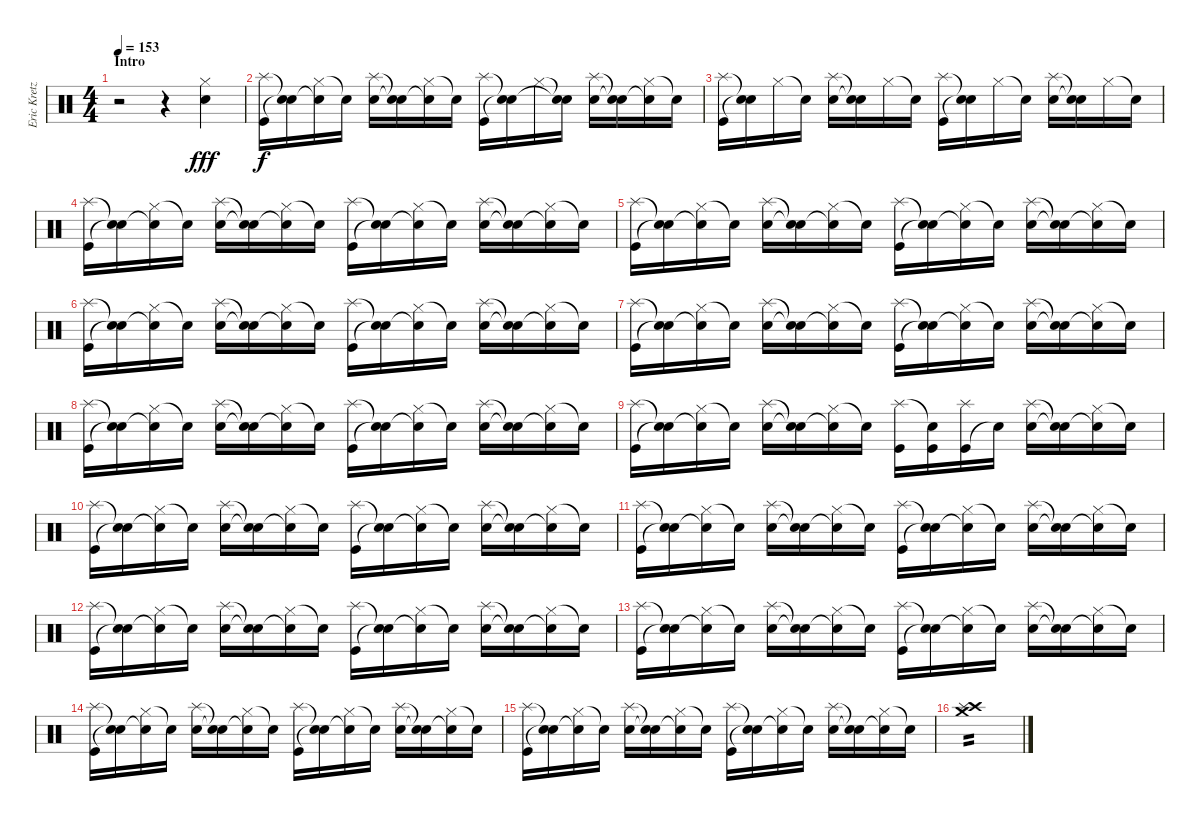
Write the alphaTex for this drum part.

\track ("Eric Kretz - Drums" "Eric Kretz") {instrument percussion}
\staff {score}
\articulation defaults
\ts (4 4)
\section ("" "Intro")
\tempo 153
\clef neutral
\ks c
r.2{dy fff} r.4 ("Hi-Hat (closed)" "Snare (hit) 2").4 |
("Kick (hit)" "Splash (hit)").16{dy f} ("Snare (hit)"{t} "Snare (hit)"{t}).16 ("Hi-Hat (closed)" "Snare (hit)"{t}).16 "Snare (hit)"{t}.16 ("Snare (hit) 2" "Splash (hit)").16 ("Snare (hit)"{t} "Snare (hit)"{t}).16 ("Hi-Hat (closed)" "Snare (hit)"{t}).16 "Snare (hit)"{t}.16 ("Kick (hit)" "Splash (hit)").16 ("Snare (hit)"{t} "Snare (hit)"{t}).16 "Hi-Hat (closed)".16 ("Snare (hit)"{t} "Snare (hit)"{t}).16 ("Snare (hit) 2" "Splash (hit)").16 ("Snare (hit)"{t} "Snare (hit)"{t}).16 ("Hi-Hat (closed)" "Snare (hit)"{t}).16 "Snare (hit)"{t}.16 |
("Splash (hit)" "Kick (hit)").16 ("Snare (hit)"{t} "Snare (hit)"{t}).16 "Hi-Hat (closed)".16 "Snare (hit)"{t}.16 ("Splash (hit)" "Snare (hit) 2").16 ("Snare (hit)"{t} "Snare (hit)"{t}).16 "Hi-Hat (closed)".16 "Snare (hit)"{t}.16 ("Splash (hit)" "Kick (hit)").16 ("Snare (hit)"{t} "Snare (hit)"{t}).16 "Hi-Hat (closed)".16 "Snare (hit)"{t}.16 ("Splash (hit)" "Snare (hit) 2").16 ("Snare (hit)"{t} "Snare (hit)"{t}).16 "Hi-Hat (closed)".16 "Snare (hit)"{t}.16 |
("Kick (hit)" "Splash (hit)").16 ("Snare (hit)"{t} "Snare (hit)"{t}).16 ("Hi-Hat (closed)" "Snare (hit)"{t}).16 "Snare (hit)"{t}.16 ("Snare (hit) 2" "Splash (hit)").16 ("Snare (hit)"{t} "Snare (hit)"{t}).16 ("Hi-Hat (closed)" "Snare (hit)"{t}).16 "Snare (hit)"{t}.16 ("Kick (hit)" "Splash (hit)").16 ("Snare (hit)"{t} "Snare (hit)"{t}).16 ("Hi-Hat (closed)" "Snare (hit)"{t}).16 "Snare (hit)"{t}.16 ("Snare (hit) 2" "Splash (hit)").16 ("Snare (hit)"{t} "Snare (hit)"{t}).16 ("Hi-Hat (closed)" "Snare (hit)"{t}).16 "Snare (hit)"{t}.16 |
("Kick (hit)" "Splash (hit)").16 ("Snare (hit)"{t} "Snare (hit)"{t}).16 ("Hi-Hat (closed)" "Snare (hit)"{t}).16 "Snare (hit)"{t}.16 ("Snare (hit) 2" "Splash (hit)").16 ("Snare (hit)"{t} "Snare (hit)"{t}).16 ("Hi-Hat (closed)" "Snare (hit)"{t}).16 "Snare (hit)"{t}.16 ("Kick (hit)" "Splash (hit)").16 ("Snare (hit)"{t} "Snare (hit)"{t}).16 ("Hi-Hat (closed)" "Snare (hit)"{t}).16 "Snare (hit)"{t}.16 ("Snare (hit) 2" "Splash (hit)").16 ("Snare (hit)"{t} "Snare (hit)"{t}).16 ("Hi-Hat (closed)" "Snare (hit)"{t}).16 "Snare (hit)"{t}.16 |
("Kick (hit)" "Splash (hit)").16 ("Snare (hit)"{t} "Snare (hit)"{t}).16 ("Hi-Hat (closed)" "Snare (hit)"{t}).16 "Snare (hit)"{t}.16 ("Snare (hit) 2" "Splash (hit)").16 ("Snare (hit)"{t} "Snare (hit)"{t}).16 ("Hi-Hat (closed)" "Snare (hit)"{t}).16 "Snare (hit)"{t}.16 ("Kick (hit)" "Splash (hit)").16 ("Snare (hit)"{t} "Snare (hit)"{t}).16 ("Hi-Hat (closed)" "Snare (hit)"{t}).16 "Snare (hit)"{t}.16 ("Snare (hit) 2" "Splash (hit)").16 ("Snare (hit)"{t} "Snare (hit)"{t}).16 ("Hi-Hat (closed)" "Snare (hit)"{t}).16 "Snare (hit)"{t}.16 |
("Kick (hit)" "Splash (hit)").16 ("Snare (hit)"{t} "Snare (hit)"{t}).16 ("Hi-Hat (closed)" "Snare (hit)"{t}).16 "Snare (hit)"{t}.16 ("Snare (hit) 2" "Splash (hit)").16 ("Snare (hit)"{t} "Snare (hit)"{t}).16 ("Hi-Hat (closed)" "Snare (hit)"{t}).16 "Snare (hit)"{t}.16 ("Kick (hit)" "Splash (hit)").16 ("Snare (hit)"{t} "Snare (hit)"{t}).16 ("Hi-Hat (closed)" "Snare (hit)"{t}).16 "Snare (hit)"{t}.16 ("Snare (hit) 2" "Splash (hit)").16 ("Snare (hit)"{t} "Snare (hit)"{t}).16 ("Hi-Hat (closed)" "Snare (hit)"{t}).16 "Snare (hit)"{t}.16 |
("Kick (hit)" "Splash (hit)").16 ("Snare (hit)"{t} "Snare (hit)"{t}).16 ("Hi-Hat (closed)" "Snare (hit)"{t}).16 "Snare (hit)"{t}.16 ("Snare (hit) 2" "Splash (hit)").16 ("Snare (hit)"{t} "Snare (hit)"{t}).16 ("Hi-Hat (closed)" "Snare (hit)"{t}).16 "Snare (hit)"{t}.16 ("Kick (hit)" "Splash (hit)").16 ("Snare (hit)"{t} "Snare (hit)"{t}).16 ("Hi-Hat (closed)" "Snare (hit)"{t}).16 "Snare (hit)"{t}.16 ("Snare (hit) 2" "Splash (hit)").16 ("Snare (hit)"{t} "Snare (hit)"{t}).16 ("Hi-Hat (closed)" "Snare (hit)"{t}).16 "Snare (hit)"{t}.16 |
("Kick (hit)" "Splash (hit)").16 ("Snare (hit)"{t} "Snare (hit)"{t}).16 ("Hi-Hat (closed)" "Snare (hit)"{t}).16 "Snare (hit)"{t}.16 ("Snare (hit) 2" "Splash (hit)").16 ("Snare (hit)"{t} "Snare (hit)"{t}).16 ("Hi-Hat (closed)" "Snare (hit)"{t}).16 "Snare (hit)"{t}.16 ("Kick (hit)" "Splash (hit)").16 ("Kick (hit)" "Snare (hit)"{t}).16 ("Kick (hit)" "Splash (hit)").16 "Snare (hit)"{t}.16 ("Snare (hit) 2" "Splash (hit)").16 ("Snare (hit)"{t} "Snare (hit)"{t}).16 ("Hi-Hat (closed)" "Snare (hit)"{t}).16 "Snare (hit)"{t}.16 |
("Kick (hit)" "Splash (hit)").16 ("Snare (hit)"{t} "Snare (hit)"{t}).16 ("Hi-Hat (closed)" "Snare (hit)"{t}).16 "Snare (hit)"{t}.16 ("Snare (hit) 2" "Splash (hit)").16 ("Snare (hit)"{t} "Snare (hit)"{t}).16 ("Hi-Hat (closed)" "Snare (hit)"{t}).16 "Snare (hit)"{t}.16 ("Kick (hit)" "Splash (hit)").16 ("Snare (hit)"{t} "Snare (hit)"{t}).16 ("Hi-Hat (closed)" "Snare (hit)"{t}).16 "Snare (hit)"{t}.16 ("Snare (hit) 2" "Splash (hit)").16 ("Snare (hit)"{t} "Snare (hit)"{t}).16 ("Hi-Hat (closed)" "Snare (hit)"{t}).16 "Snare (hit)"{t}.16 |
("Kick (hit)" "Splash (hit)").16 ("Snare (hit)"{t} "Snare (hit)"{t}).16 ("Hi-Hat (closed)" "Snare (hit)"{t}).16 "Snare (hit)"{t}.16 ("Snare (hit) 2" "Splash (hit)").16 ("Snare (hit)"{t} "Snare (hit)"{t}).16 ("Hi-Hat (closed)" "Snare (hit)"{t}).16 "Snare (hit)"{t}.16 ("Kick (hit)" "Splash (hit)").16 ("Snare (hit)"{t} "Snare (hit)"{t}).16 ("Hi-Hat (closed)" "Snare (hit)"{t}).16 "Snare (hit)"{t}.16 ("Snare (hit) 2" "Splash (hit)").16 ("Snare (hit)"{t} "Snare (hit)"{t}).16 ("Hi-Hat (closed)" "Snare (hit)"{t}).16 "Snare (hit)"{t}.16 |
("Kick (hit)" "Splash (hit)").16 ("Snare (hit)"{t} "Snare (hit)"{t}).16 ("Hi-Hat (closed)" "Snare (hit)"{t}).16 "Snare (hit)"{t}.16 ("Snare (hit) 2" "Splash (hit)").16 ("Snare (hit)"{t} "Snare (hit)"{t}).16 ("Hi-Hat (closed)" "Snare (hit)"{t}).16 "Snare (hit)"{t}.16 ("Kick (hit)" "Splash (hit)").16 ("Snare (hit)"{t} "Snare (hit)"{t}).16 ("Hi-Hat (closed)" "Snare (hit)"{t}).16 "Snare (hit)"{t}.16 ("Snare (hit) 2" "Splash (hit)").16 ("Snare (hit)"{t} "Snare (hit)"{t}).16 ("Hi-Hat (closed)" "Snare (hit)"{t}).16 "Snare (hit)"{t}.16 |
("Kick (hit)" "Splash (hit)").16 ("Snare (hit)"{t} "Snare (hit)"{t}).16 ("Hi-Hat (closed)" "Snare (hit)"{t}).16 "Snare (hit)"{t}.16 ("Snare (hit) 2" "Splash (hit)").16 ("Snare (hit)"{t} "Snare (hit)"{t}).16 ("Hi-Hat (closed)" "Snare (hit)"{t}).16 "Snare (hit)"{t}.16 ("Kick (hit)" "Splash (hit)").16 ("Snare (hit)"{t} "Snare (hit)"{t}).16 ("Hi-Hat (closed)" "Snare (hit)"{t}).16 "Snare (hit)"{t}.16 ("Snare (hit) 2" "Splash (hit)").16 ("Snare (hit)"{t} "Snare (hit)"{t}).16 ("Hi-Hat (closed)" "Snare (hit)"{t}).16 "Snare (hit)"{t}.16 |
("Kick (hit)" "Splash (hit)").16 ("Snare (hit)"{t} "Snare (hit)"{t}).16 ("Hi-Hat (closed)" "Snare (hit)"{t}).16 "Snare (hit)"{t}.16 ("Snare (hit) 2" "Splash (hit)").16 ("Snare (hit)"{t} "Snare (hit)"{t}).16 ("Hi-Hat (closed)" "Snare (hit)"{t}).16 "Snare (hit)"{t}.16 ("Kick (hit)" "Splash (hit)").16 ("Snare (hit)"{t} "Snare (hit)"{t}).16 ("Hi-Hat (closed)" "Snare (hit)"{t}).16 "Snare (hit)"{t}.16 ("Snare (hit) 2" "Splash (hit)").16 ("Snare (hit)"{t} "Snare (hit)"{t}).16 ("Hi-Hat (closed)" "Snare (hit)"{t}).16 "Snare (hit)"{t}.16 |
("Kick (hit)" "Splash (hit)").16 ("Snare (hit)"{t} "Snare (hit)"{t}).16 ("Hi-Hat (closed)" "Snare (hit)"{t}).16 "Snare (hit)"{t}.16 ("Snare (hit) 2" "Splash (hit)").16 ("Snare (hit)"{t} "Snare (hit)"{t}).16 ("Hi-Hat (closed)" "Snare (hit)"{t}).16 "Snare (hit)"{t}.16 ("Kick (hit)" "Splash (hit)").16 ("Snare (hit)"{t} "Snare (hit)"{t}).16 ("Hi-Hat (closed)" "Snare (hit)"{t}).16 "Snare (hit)"{t}.16 ("Snare (hit) 2" "Splash (hit)").16 ("Snare (hit)"{t} "Snare (hit)"{t}).16 ("Hi-Hat (closed)" "Snare (hit)"{t}).16 "Snare (hit)"{t}.16 |
("Crash high (hit)" "Crash medium (hit)" "Splash (hit)").1{tp 2}
